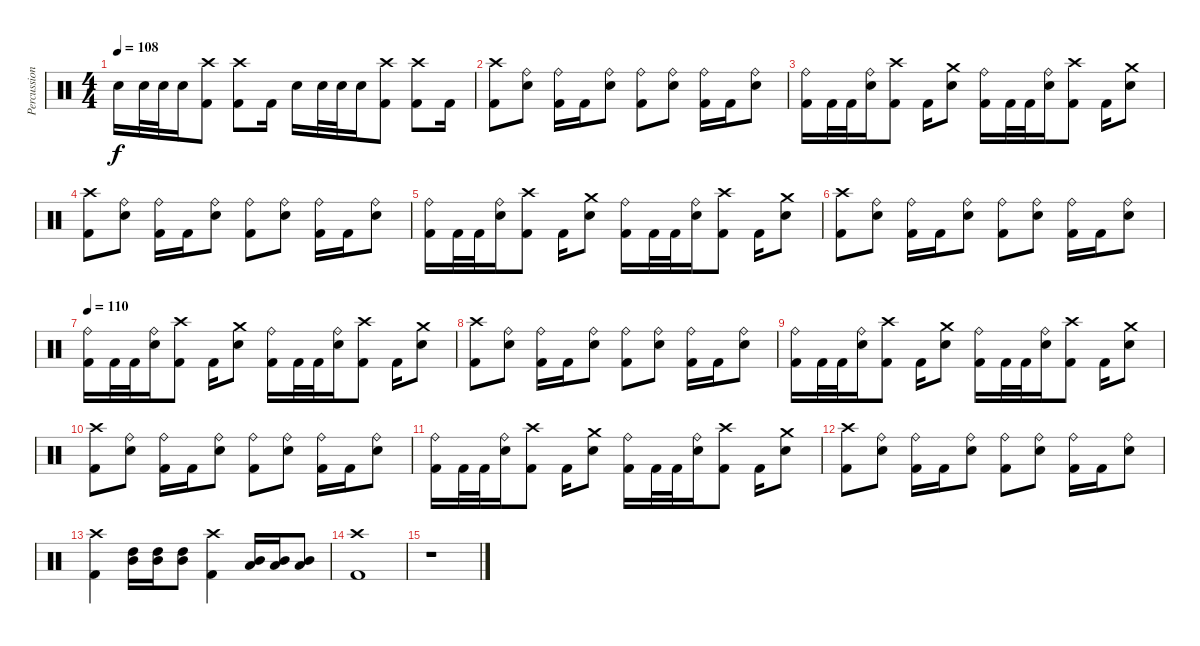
\track ("Percussion" "Percussion") {solo instrument percussion}
\staff {score}
\articulation defaults
\ts (4 4)
\tempo 108
\clef neutral
\ks c "Snare (hit) 2".16{dy f} "Snare (hit) 2".32 "Snare (hit) 2".32 "Snare (hit) 2".16
("Crash high (hit)" "Kick (hit) 2").8 ("Crash high (hit)" "Kick (hit) 2").8 "Kick (hit) 2".16 "Snare (hit) 2".16 "Snare (hit) 2".32 "Snare (hit) 2".32 "Snare (hit) 2".16 ("Crash high (hit)" "Kick (hit) 2").8 ("Crash high (hit)" "Kick (hit) 2").8 "Kick (hit) 2".16 |
("Crash high (hit)" "Kick (hit) 2").8 ("Ride (bell)" "Snare (hit) 2").8 ("Ride (bell)" "Kick (hit) 2").16 "Kick (hit) 2".16 ("Ride (bell)" "Snare (hit) 2").8 ("Ride (bell)" "Kick (hit) 2").8 ("Ride (bell)" "Snare (hit) 2").8 ("Ride (bell)" "Kick (hit) 2").16 "Kick (hit) 2".16 ("Ride (bell)" "Snare (hit) 2").8 |
("Ride (bell)" "Kick (hit) 2").16 "Kick (hit) 2".32 "Kick (hit) 2".32 ("Ride (bell)" "Snare (hit) 2").16 ("Crash high (hit)" "Kick (hit) 2").8 "Kick (hit) 2".16 ("Crash medium (hit)" "Snare (hit) 2").8 ("Ride (bell)" "Kick (hit) 2").16 "Kick (hit) 2".32 "Kick (hit) 2".32 ("Ride (bell)" "Snare (hit) 2").16 ("Crash high (hit)" "Kick (hit) 2").8 "Kick (hit) 2".16 ("Crash medium (hit)" "Snare (hit) 2").8 |
("Crash high (hit)" "Kick (hit) 2").8 ("Ride (bell)" "Snare (hit) 2").8 ("Ride (bell)" "Kick (hit) 2").16 "Kick (hit) 2".16 ("Ride (bell)" "Snare (hit) 2").8 ("Ride (bell)" "Kick (hit) 2").8 ("Ride (bell)" "Snare (hit) 2").8 ("Ride (bell)" "Kick (hit) 2").16 "Kick (hit) 2".16 ("Ride (bell)" "Snare (hit) 2").8 |
("Ride (bell)" "Kick (hit) 2").16 "Kick (hit) 2".32 "Kick (hit) 2".32 ("Ride (bell)" "Snare (hit) 2").16 ("Crash high (hit)" "Kick (hit) 2").8 "Kick (hit) 2".16 ("Crash medium (hit)" "Snare (hit) 2").8 ("Ride (bell)" "Kick (hit) 2").16 "Kick (hit) 2".32 "Kick (hit) 2".32 ("Ride (bell)" "Snare (hit) 2").16 ("Crash high (hit)" "Kick (hit) 2").8 "Kick (hit) 2".16 ("Crash medium (hit)" "Snare (hit) 2").8 |
("Crash high (hit)" "Kick (hit) 2").8 ("Ride (bell)" "Snare (hit) 2").8 ("Ride (bell)" "Kick (hit) 2").16 "Kick (hit) 2".16 ("Ride (bell)" "Snare (hit) 2").8 ("Ride (bell)" "Kick (hit) 2").8 ("Ride (bell)" "Snare (hit) 2").8 ("Ride (bell)" "Kick (hit) 2").16 "Kick (hit) 2".16 ("Ride (bell)" "Snare (hit) 2").8 |
\tempo 110
("Ride (bell)" "Kick (hit) 2").16 "Kick (hit) 2".32 "Kick (hit) 2".32 ("Ride (bell)" "Snare (hit) 2").16 ("Crash high (hit)" "Kick (hit) 2").8 "Kick (hit) 2".16 ("Crash medium (hit)" "Snare (hit) 2").8 ("Ride (bell)" "Kick (hit) 2").16 "Kick (hit) 2".32 "Kick (hit) 2".32 ("Ride (bell)" "Snare (hit) 2").16 ("Crash high (hit)" "Kick (hit) 2").8 "Kick (hit) 2".16 ("Crash medium (hit)" "Snare (hit) 2").8 |
("Crash high (hit)" "Kick (hit) 2").8 ("Ride (bell)" "Snare (hit) 2").8 ("Ride (bell)" "Kick (hit) 2").16 "Kick (hit) 2".16 ("Ride (bell)" "Snare (hit) 2").8 ("Ride (bell)" "Kick (hit) 2").8 ("Ride (bell)" "Snare (hit) 2").8 ("Ride (bell)" "Kick (hit) 2").16 "Kick (hit) 2".16 ("Ride (bell)" "Snare (hit) 2").8 |
("Ride (bell)" "Kick (hit) 2").16 "Kick (hit) 2".32 "Kick (hit) 2".32 ("Ride (bell)" "Snare (hit) 2").16 ("Crash high (hit)" "Kick (hit) 2").8 "Kick (hit) 2".16 ("Crash medium (hit)" "Snare (hit) 2").8 ("Ride (bell)" "Kick (hit) 2").16 "Kick (hit) 2".32 "Kick (hit) 2".32 ("Ride (bell)" "Snare (hit) 2").16 ("Crash high (hit)" "Kick (hit) 2").8 "Kick (hit) 2".16 ("Crash medium (hit)" "Snare (hit) 2").8 |
("Crash high (hit)" "Kick (hit) 2").8 ("Ride (bell)" "Snare (hit) 2").8 ("Ride (bell)" "Kick (hit) 2").16 "Kick (hit) 2".16 ("Ride (bell)" "Snare (hit) 2").8 ("Ride (bell)" "Kick (hit) 2").8 ("Ride (bell)" "Snare (hit) 2").8 ("Ride (bell)" "Kick (hit) 2").16 "Kick (hit) 2".16 ("Ride (bell)" "Snare (hit) 2").8 |
("Ride (bell)" "Kick (hit) 2").16 "Kick (hit) 2".32 "Kick (hit) 2".32 ("Ride (bell)" "Snare (hit) 2").16 ("Crash high (hit)" "Kick (hit) 2").8 "Kick (hit) 2".16 ("Crash medium (hit)" "Snare (hit) 2").8 ("Ride (bell)" "Kick (hit) 2").16 "Kick (hit) 2".32 "Kick (hit) 2".32 ("Ride (bell)" "Snare (hit) 2").16 ("Crash high (hit)" "Kick (hit) 2").8 "Kick (hit) 2".16 ("Crash medium (hit)" "Snare (hit) 2").8 |
("Crash high (hit)" "Kick (hit) 2").8 ("Ride (bell)" "Snare (hit) 2").8 ("Ride (bell)" "Kick (hit) 2").16 "Kick (hit) 2".16 ("Ride (bell)" "Snare (hit) 2").8 ("Ride (bell)" "Kick (hit) 2").8 ("Ride (bell)" "Snare (hit) 2").8 ("Ride (bell)" "Kick (hit) 2").16 "Kick (hit) 2".16 ("Ride (bell)" "Snare (hit) 2").8 |
("Crash high (hit)" "Kick (hit) 2").4 ("High Tom (hit)" "Mid Tom (hit)").16 ("High Tom (hit)" "Mid Tom (hit)").16 ("High Tom (hit)" "Mid Tom (hit)").8 ("Crash high (hit)" "Kick (hit) 2").4 ("Mid Tom (hit)" "Low Tom (hit)").16 ("Mid Tom (hit)" "Low Tom (hit)").16 ("Mid Tom (hit)" "Low Tom (hit)").8 |
("Crash high (hit)" "Kick (hit) 2").1 |
r.1
